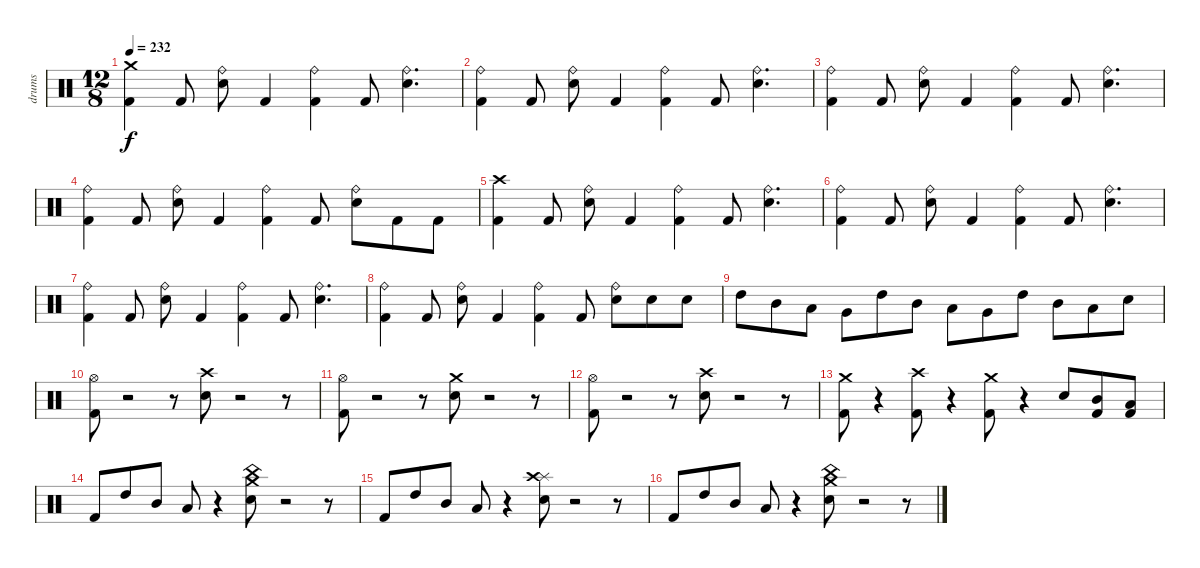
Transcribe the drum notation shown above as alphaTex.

\track ("drums" "drums") {instrument percussion}
\staff {score}
\articulation defaults
\ts (12 8)
\tempo 232
\clef neutral
\ks c
("Crash medium (hit)" "Kick (hit) 2").4{dy f} "Kick (hit) 2".8 ("Ride (bell)" "Electric Snare (hit)").8 "Kick (hit) 2".4 ("Ride (bell)" "Kick (hit) 2").4 "Kick (hit) 2".8 ("Ride (bell)" "Electric Snare (hit)").4{d} |
("Ride (bell)" "Kick (hit) 2").4 "Kick (hit) 2".8 ("Ride (bell)" "Electric Snare (hit)").8 "Kick (hit) 2".4 ("Ride (bell)" "Kick (hit) 2").4 "Kick (hit) 2".8 ("Ride (bell)" "Electric Snare (hit)").4{d} |
("Kick (hit) 2" "Ride (bell)").4 "Kick (hit) 2".8 ("Ride (bell)" "Electric Snare (hit)").8 "Kick (hit) 2".4 ("Kick (hit) 2" "Ride (bell)").4 "Kick (hit) 2".8 ("Ride (bell)" "Electric Snare (hit)").4{d} |
("Kick (hit) 2" "Ride (bell)").4 "Kick (hit) 2".8 ("Ride (bell)" "Electric Snare (hit)").8 "Kick (hit) 2".4 ("Ride (bell)" "Kick (hit) 2").4 "Kick (hit) 2".8 ("Ride (bell)" "Electric Snare (hit)").8 "Kick (hit) 2".8 "Kick (hit) 2".8 |
("Crash high (hit)" "Kick (hit) 2").4 "Kick (hit) 2".8 ("Ride (bell)" "Electric Snare (hit)").8 "Kick (hit) 2".4 ("Ride (bell)" "Kick (hit) 2").4 "Kick (hit) 2".8 ("Ride (bell)" "Electric Snare (hit)").4{d} |
("Ride (bell)" "Kick (hit) 2").4 "Kick (hit) 2".8 ("Ride (bell)" "Electric Snare (hit)").8 "Kick (hit) 2".4 ("Ride (bell)" "Kick (hit) 2").4 "Kick (hit) 2".8 ("Ride (bell)" "Electric Snare (hit)").4{d} |
("Kick (hit) 2" "Ride (bell)").4 "Kick (hit) 2".8 ("Ride (bell)" "Electric Snare (hit)").8 "Kick (hit) 2".4 ("Kick (hit) 2" "Ride (bell)").4 "Kick (hit) 2".8 ("Ride (bell)" "Electric Snare (hit)").4{d} |
("Kick (hit) 2" "Ride (bell)").4 "Kick (hit) 2".8 ("Ride (bell)" "Electric Snare (hit)").8 "Kick (hit) 2".4 ("Ride (bell)" "Kick (hit) 2").4 "Kick (hit) 2".8 ("Ride (bell)" "Electric Snare (hit)").8 "Electric Snare (hit)".8 "Electric Snare (hit)".8 |
"High Tom (hit)".8 "Mid Tom (hit)".8 "Low Tom (hit)".8 "Very Low Tom (hit)".8 "High Tom (hit)".8 "Mid Tom (hit)".8 "Low Tom (hit)".8 "Very Low Tom (hit)".8 "High Tom (hit)".8 "Mid Tom (hit)".8 "Low Tom (hit)".8 "Electric Snare (hit)".8 |
("Hi-Hat (open)" "Kick (hit) 2").8 r.2 r.8 ("Crash high (hit)" "Electric Snare (hit)").8 r.2 r.8 |
("Hi-Hat (open)" "Kick (hit) 2").8 r.2 r.8 ("Crash medium (hit)" "Electric Snare (hit)").8 r.2 r.8 |
("Hi-Hat (open)" "Kick (hit) 2").8 r.2 r.8 ("Crash high (hit)" "Electric Snare (hit)").8 r.2 r.8 |
("Crash medium (hit)" "Kick (hit) 2").8 r.4 ("Crash high (hit)" "Kick (hit) 2").8 r.4 ("Crash medium (hit)" "Kick (hit) 2").8 r.4 "Electric Snare (hit)".8 ("Kick (hit) 2" "Mid Tom (hit)").8 ("Kick (hit) 2" "Low Tom (hit)").8 |
"Kick (hit) 2".8 "High Tom (hit)".8 "Mid Tom (hit)".8 "Low Tom (hit)".8 r.4 ("China (hit)" "Crash medium (hit)" "Electric Snare (hit)").8 r.2 r.8 |
"Kick (hit) 2".8 "High Tom (hit)".8 "Mid Tom (hit)".8 "Low Tom (hit)".8 r.4 ("Splash (hit)" "Crash high (hit)" "Electric Snare (hit)").8 r.2 r.8 |
"Kick (hit) 2".8 "High Tom (hit)".8 "Mid Tom (hit)".8 "Low Tom (hit)".8 r.4 ("China (hit)" "Crash medium (hit)" "Electric Snare (hit)").8 r.2 r.8
